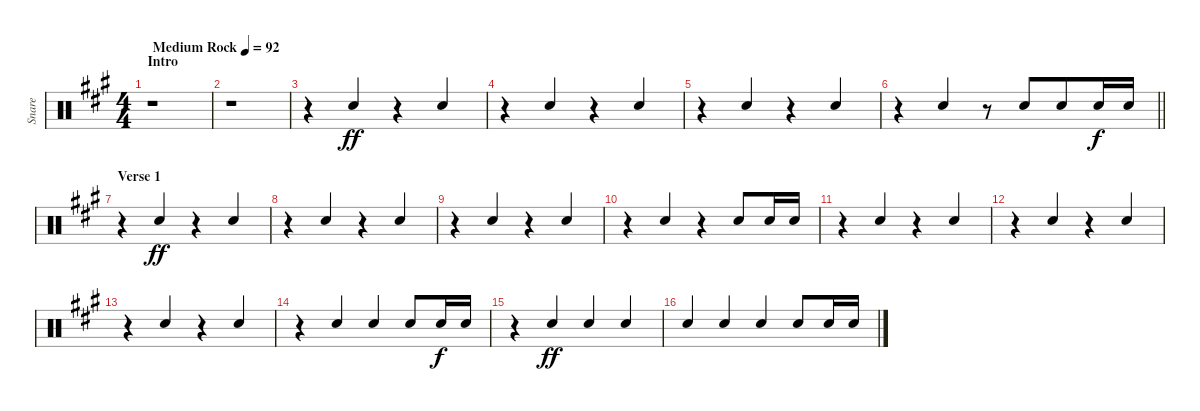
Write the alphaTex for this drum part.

\track ("Snare" "Snare") {instrument percussion}
\staff {score}
\articulation defaults
\ts (4 4)
\section ("" "Intro")
\tempo (92 "Medium Rock")
\clef neutral
\ks f#minor
r.1{dy ff} |
r.1 |
r.4 "Electric Snare (hit)".4{beam Up} r.4{beam merge} "Electric Snare (hit)".4{beam Up} |
r.4 "Electric Snare (hit)".4{beam Up} r.4{beam merge} "Electric Snare (hit)".4{beam Up} |
r.4 "Electric Snare (hit)".4{beam Up} r.4{beam merge} "Electric Snare (hit)".4{beam Up} |
\barLineRight lightlight
r.4 "Electric Snare (hit)".4{beam Up} r.8 "Electric Snare (hit)".8{volume 6 beam Up beam merge} "Electric Snare (hit)".8{volume 13 beam Up} "Electric Snare (hit)".16{dy f beam Up} "Electric Snare (hit)".16{beam Up} |
\section ("" "Verse 1")
r.4 "Electric Snare (hit)".4{dy ff beam Up} r.4{beam merge} "Electric Snare (hit)".4{beam Up} |
r.4 "Electric Snare (hit)".4{beam Up} r.4{beam merge} "Electric Snare (hit)".4{beam Up} |
r.4 "Electric Snare (hit)".4{beam Up} r.4{beam merge} "Electric Snare (hit)".4{beam Up} |
r.4 "Electric Snare (hit)".4{beam Up} r.4{beam merge} "Electric Snare (hit)".8{beam Up} "Electric Snare (hit)".16{beam Up} "Electric Snare (hit)".16{beam Up} |
r.4 "Electric Snare (hit)".4{beam Up} r.4{beam merge} "Electric Snare (hit)".4{beam Up} |
r.4 "Electric Snare (hit)".4{beam Up} r.4{beam merge} "Electric Snare (hit)".4{beam Up} |
r.4 "Electric Snare (hit)".4{beam Up} r.4{beam merge} "Electric Snare (hit)".4{beam Up} |
r.4 "Electric Snare (hit)".4{beam Up} "Electric Snare (hit)".4{beam Up beam merge} "Electric Snare (hit)".8{beam Up} "Electric Snare (hit)".16{dy f beam Up} "Electric Snare (hit)".16{beam Up} |
r.4 "Electric Snare (hit)".4{dy ff beam Up} "Electric Snare (hit)".4{beam Up} "Electric Snare (hit)".4{beam Up} |
"Electric Snare (hit)".4{beam Up} "Electric Snare (hit)".4{beam Up} "Electric Snare (hit)".4{beam Up} "Electric Snare (hit)".8{beam Up} "Electric Snare (hit)".16{beam Up} "Electric Snare (hit)".16{beam Up}
